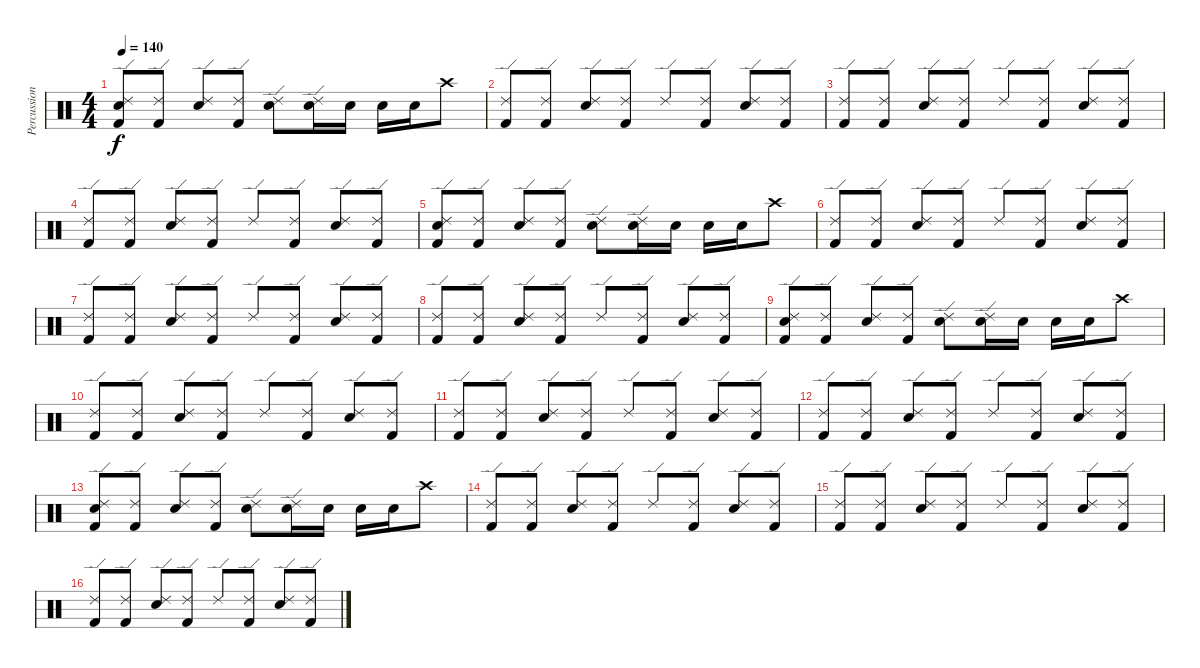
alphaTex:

\track ("Percussion" "Percussion") {instrument percussion}
\staff {score}
\articulation defaults
\ts (4 4)
\tempo 140
\clef neutral
\ks c
("Kick (hit) 2" "Snare (hit) 2" "Ride (edge) 2").8{dy f} ("Kick (hit) 2" "Ride (edge) 2").8 ("Snare (hit) 2" "Ride (edge) 2").8 ("Kick (hit) 2" "Ride (edge) 2").8 ("Snare (hit) 2" "Ride (edge) 2").8 ("Snare (hit) 2" "Ride (edge) 2").16 "Snare (hit) 2".16 "Snare (hit) 2".16 "Snare (hit) 2".16 "Crash high (hit)".8 |
("Kick (hit) 2" "Ride (edge) 2").8 ("Kick (hit) 2" "Ride (edge) 2").8 ("Snare (hit) 2" "Ride (edge) 2").8 ("Kick (hit) 2" "Ride (edge) 2").8 "Ride (edge) 2".8 ("Kick (hit) 2" "Ride (edge) 2").8 ("Snare (hit) 2" "Ride (edge) 2").8 ("Kick (hit) 2" "Ride (edge) 2").8 |
("Kick (hit) 2" "Ride (edge) 2").8 ("Kick (hit) 2" "Ride (edge) 2").8 ("Snare (hit) 2" "Ride (edge) 2").8 ("Kick (hit) 2" "Ride (edge) 2").8 "Ride (edge) 2".8 ("Kick (hit) 2" "Ride (edge) 2").8 ("Snare (hit) 2" "Ride (edge) 2").8 ("Kick (hit) 2" "Ride (edge) 2").8 |
("Kick (hit) 2" "Ride (edge) 2").8 ("Kick (hit) 2" "Ride (edge) 2").8 ("Snare (hit) 2" "Ride (edge) 2").8 ("Kick (hit) 2" "Ride (edge) 2").8 "Ride (edge) 2".8 ("Kick (hit) 2" "Ride (edge) 2").8 ("Snare (hit) 2" "Ride (edge) 2").8 ("Kick (hit) 2" "Ride (edge) 2").8 |
("Kick (hit) 2" "Snare (hit) 2" "Ride (edge) 2").8 ("Kick (hit) 2" "Ride (edge) 2").8 ("Snare (hit) 2" "Ride (edge) 2").8 ("Kick (hit) 2" "Ride (edge) 2").8 ("Snare (hit) 2" "Ride (edge) 2").8 ("Snare (hit) 2" "Ride (edge) 2").16 "Snare (hit) 2".16 "Snare (hit) 2".16 "Snare (hit) 2".16 "Crash high (hit)".8 |
("Kick (hit) 2" "Ride (edge) 2").8 ("Kick (hit) 2" "Ride (edge) 2").8 ("Snare (hit) 2" "Ride (edge) 2").8 ("Kick (hit) 2" "Ride (edge) 2").8 "Ride (edge) 2".8 ("Kick (hit) 2" "Ride (edge) 2").8 ("Snare (hit) 2" "Ride (edge) 2").8 ("Kick (hit) 2" "Ride (edge) 2").8 |
("Kick (hit) 2" "Ride (edge) 2").8 ("Kick (hit) 2" "Ride (edge) 2").8 ("Snare (hit) 2" "Ride (edge) 2").8 ("Kick (hit) 2" "Ride (edge) 2").8 "Ride (edge) 2".8 ("Kick (hit) 2" "Ride (edge) 2").8 ("Snare (hit) 2" "Ride (edge) 2").8 ("Kick (hit) 2" "Ride (edge) 2").8 |
("Kick (hit) 2" "Ride (edge) 2").8 ("Kick (hit) 2" "Ride (edge) 2").8 ("Snare (hit) 2" "Ride (edge) 2").8 ("Kick (hit) 2" "Ride (edge) 2").8 "Ride (edge) 2".8 ("Kick (hit) 2" "Ride (edge) 2").8 ("Snare (hit) 2" "Ride (edge) 2").8 ("Kick (hit) 2" "Ride (edge) 2").8 |
("Kick (hit) 2" "Snare (hit) 2" "Ride (edge) 2").8 ("Kick (hit) 2" "Ride (edge) 2").8 ("Snare (hit) 2" "Ride (edge) 2").8 ("Kick (hit) 2" "Ride (edge) 2").8 ("Snare (hit) 2" "Ride (edge) 2").8 ("Snare (hit) 2" "Ride (edge) 2").16 "Snare (hit) 2".16 "Snare (hit) 2".16 "Snare (hit) 2".16 "Crash high (hit)".8 |
("Kick (hit) 2" "Ride (edge) 2").8 ("Kick (hit) 2" "Ride (edge) 2").8 ("Snare (hit) 2" "Ride (edge) 2").8 ("Kick (hit) 2" "Ride (edge) 2").8 "Ride (edge) 2".8 ("Kick (hit) 2" "Ride (edge) 2").8 ("Snare (hit) 2" "Ride (edge) 2").8 ("Kick (hit) 2" "Ride (edge) 2").8 |
("Kick (hit) 2" "Ride (edge) 2").8 ("Kick (hit) 2" "Ride (edge) 2").8 ("Snare (hit) 2" "Ride (edge) 2").8 ("Kick (hit) 2" "Ride (edge) 2").8 "Ride (edge) 2".8 ("Kick (hit) 2" "Ride (edge) 2").8 ("Snare (hit) 2" "Ride (edge) 2").8 ("Kick (hit) 2" "Ride (edge) 2").8 |
("Kick (hit) 2" "Ride (edge) 2").8 ("Kick (hit) 2" "Ride (edge) 2").8 ("Snare (hit) 2" "Ride (edge) 2").8 ("Kick (hit) 2" "Ride (edge) 2").8 "Ride (edge) 2".8 ("Kick (hit) 2" "Ride (edge) 2").8 ("Snare (hit) 2" "Ride (edge) 2").8 ("Kick (hit) 2" "Ride (edge) 2").8 |
("Kick (hit) 2" "Snare (hit) 2" "Ride (edge) 2").8 ("Kick (hit) 2" "Ride (edge) 2").8 ("Snare (hit) 2" "Ride (edge) 2").8 ("Kick (hit) 2" "Ride (edge) 2").8 ("Snare (hit) 2" "Ride (edge) 2").8 ("Snare (hit) 2" "Ride (edge) 2").16 "Snare (hit) 2".16 "Snare (hit) 2".16 "Snare (hit) 2".16 "Crash high (hit)".8 |
("Kick (hit) 2" "Ride (edge) 2").8 ("Kick (hit) 2" "Ride (edge) 2").8 ("Snare (hit) 2" "Ride (edge) 2").8 ("Kick (hit) 2" "Ride (edge) 2").8 "Ride (edge) 2".8 ("Kick (hit) 2" "Ride (edge) 2").8 ("Snare (hit) 2" "Ride (edge) 2").8 ("Kick (hit) 2" "Ride (edge) 2").8 |
("Kick (hit) 2" "Ride (edge) 2").8 ("Kick (hit) 2" "Ride (edge) 2").8 ("Snare (hit) 2" "Ride (edge) 2").8 ("Kick (hit) 2" "Ride (edge) 2").8 "Ride (edge) 2".8 ("Kick (hit) 2" "Ride (edge) 2").8 ("Snare (hit) 2" "Ride (edge) 2").8 ("Kick (hit) 2" "Ride (edge) 2").8 |
("Kick (hit) 2" "Ride (edge) 2").8 ("Kick (hit) 2" "Ride (edge) 2").8 ("Snare (hit) 2" "Ride (edge) 2").8 ("Kick (hit) 2" "Ride (edge) 2").8 "Ride (edge) 2".8 ("Kick (hit) 2" "Ride (edge) 2").8 ("Snare (hit) 2" "Ride (edge) 2").8 ("Kick (hit) 2" "Ride (edge) 2").8
